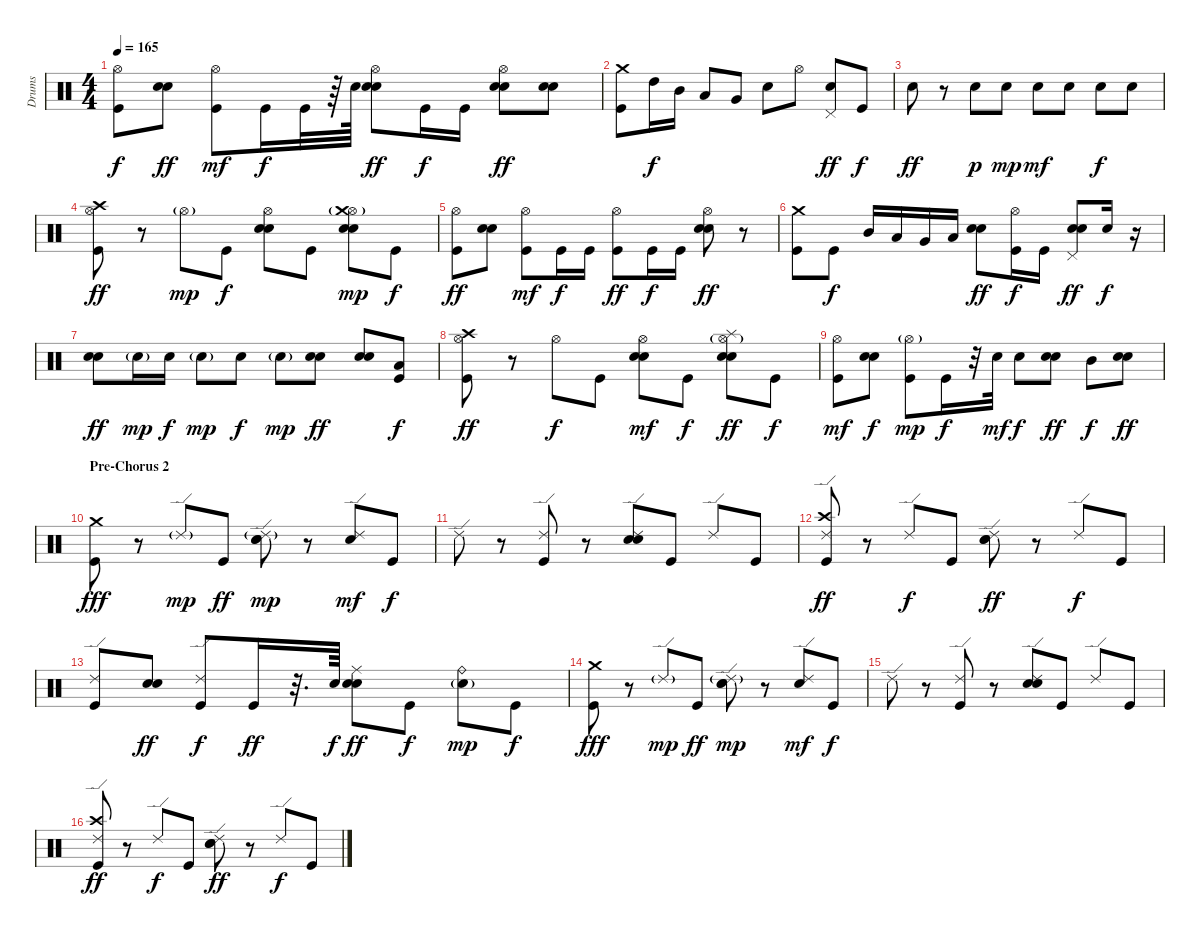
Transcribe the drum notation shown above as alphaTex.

\track ("Drums" "Drums") {instrument percussion}
\staff {score}
\articulation defaults
\ts (4 4)
\tempo 165
\clef neutral
\ks c
("Kick (hit)" "Hi-Hat (open)").8{dy f} ("Electric Snare (hit)" "Electric Snare (hit)").8{dy ff} ("Kick (hit)" "Hi-Hat (open)").8{dy mf} "Kick (hit)".16{dy f} "Kick (hit)".32 r.64 "Electric Snare (hit)".64 ("Electric Snare (hit)" "Electric Snare (hit)" "Hi-Hat (open)").8{dy ff} "Kick (hit)".16{dy f} "Kick (hit)".16 ("Electric Snare (hit)" "Electric Snare (hit)" "Hi-Hat (open)").8{dy ff} ("Electric Snare (hit)" "Electric Snare (hit)").8 |
("Kick (hit)" "Crash medium (hit)").8 "High Tom (hit)".16{dy f} "Mid Tom (hit)".16 "Low Tom (hit)".8 "Very Low Tom (hit)".8 "Electric Snare (hit)".8 "Hi-Hat (open)".8 ("Electric Snare (hit)" "Pedal Hi-Hat (hit)").8{dy ff} "Kick (hit)".8{dy f} |
"Electric Snare (hit)".8{dy ff} r.8 "Electric Snare (hit)".8{dy p} "Electric Snare (hit)".8{dy mp} "Electric Snare (hit)".8{dy mf} "Electric Snare (hit)".8 "Electric Snare (hit)".8{dy f} "Electric Snare (hit)".8 |
("Kick (hit)" "Hi-Hat (open)" "Crash high (hit)").8{dy ff} r.8 "Hi-Hat (open)"{g}.8{dy mp} "Kick (hit)".8{dy f} ("Electric Snare (hit)" "Electric Snare (hit)" "Hi-Hat (open)").8 "Kick (hit)".8 ("Electric Snare (hit)" "Electric Snare (hit)" "Hi-Hat (open)"{g} "Crash medium (hit)").8{dy mp} "Kick (hit)".8{dy f} |
("Kick (hit)" "Hi-Hat (open)").8{dy ff} ("Electric Snare (hit)" "Electric Snare (hit)").8 ("Kick (hit)" "Hi-Hat (open)").8{dy mf} "Kick (hit)".16{dy f} "Kick (hit)".16 ("Kick (hit)" "Hi-Hat (open)").8{dy ff} "Kick (hit)".16{dy f} "Kick (hit)".16 ("Electric Snare (hit)" "Electric Snare (hit)" "Hi-Hat (open)").8{dy ff} r.8 |
("Kick (hit)" "Crash medium (hit)").8 "Kick (hit)".8{dy f} "Mid Tom (hit)".16 "Low Tom (hit)".16 "Very Low Tom (hit)".16 "Low Floor Tom (hit)".16 ("Electric Snare (hit)" "Electric Snare (hit)").8{dy ff} ("Kick (hit)" "Hi-Hat (open)").16{dy f} "Kick (hit)".16 ("Electric Snare (hit)" "Pedal Hi-Hat (hit)" "Electric Snare (hit)").8{dy ff} "Electric Snare (hit)".16{dy f} r.16 |
("Electric Snare (hit)" "Electric Snare (hit)").8{dy ff} "Electric Snare (hit)"{g}.16{dy mp} "Electric Snare (hit)".16{dy f} "Electric Snare (hit)"{g}.8{dy mp} "Electric Snare (hit)".8{dy f} "Electric Snare (hit)"{g}.8{dy mp} ("Electric Snare (hit)" "Electric Snare (hit)").8{dy ff} ("Electric Snare (hit)" "Electric Snare (hit)").8 ("Kick (hit)" "Low Floor Tom (hit)").8{dy f} |
("Kick (hit)" "Hi-Hat (open)" "Crash high (hit)").8{dy ff} r.8 "Hi-Hat (open)".8{dy f} "Kick (hit)".8 ("Electric Snare (hit)" "Electric Snare (hit)" "Hi-Hat (open)").8{dy mf} "Kick (hit)".8{dy f} ("Electric Snare (hit)" "Electric Snare (hit)" "Hi-Hat (open)"{g} "Splash (hit)").8{dy ff} "Kick (hit)".8{dy f} |
("Kick (hit)" "Hi-Hat (open)").8{dy mf} ("Electric Snare (hit)" "Electric Snare (hit)").8{dy f} ("Kick (hit)" "Hi-Hat (open)"{g}).8{dy mp} "Kick (hit)".16{dy f} r.32 "Electric Snare (hit)".32{dy mf} "Electric Snare (hit)".8{dy f} ("Electric Snare (hit)" "Electric Snare (hit)").8{dy ff} "Mid Tom (hit)".8{dy f} ("Electric Snare (hit)" "Electric Snare (hit)").8{dy ff} |
\section ("" "Pre-Chorus 2")
("Kick (hit)" "Crash medium (hit)").8{dy fff} r.8 "Ride (edge) 2"{g}.8{dy mp} "Kick (hit)".8{dy ff} ("Electric Snare (hit)" "Electric Snare (hit)" "Ride (edge) 2"{g}).8{dy mp} r.8 ("Electric Snare (hit)" "Ride (edge) 2").8{dy mf} "Kick (hit)".8{dy f} |
"Ride (edge) 2".8 r.8 ("Kick (hit)" "Ride (edge) 2").8 r.8 ("Electric Snare (hit)" "Electric Snare (hit)" "Ride (edge) 2").8 "Kick (hit)".8 "Ride (edge) 2".8 "Kick (hit)".8 |
("Kick (hit)" "Ride (edge) 2" "Crash high (hit)").8{dy ff} r.8 "Ride (edge) 2".8{dy f} "Kick (hit)".8 ("Electric Snare (hit)" "Electric Snare (hit)" "Ride (edge) 2").8{dy ff} r.8 "Ride (edge) 2".8{dy f} "Kick (hit)".8 |
("Kick (hit)" "Ride (edge) 2").8 ("Electric Snare (hit)" "Electric Snare (hit)").8{dy ff} ("Kick (hit)" "Ride (edge) 2").8{dy f} "Kick (hit)".16{dy ff} r.32{d} "Electric Snare (hit)".64{dy f} ("Electric Snare (hit)" "Electric Snare (hit)" "Ride (middle)").8{dy ff} "Kick (hit)".8{dy f} ("Electric Snare (hit)"{g} "Ride (bell)").8{dy mp} "Kick (hit)".8{dy f} |
("Kick (hit)" "Crash medium (hit)").8{dy fff} r.8 "Ride (edge) 2"{g}.8{dy mp} "Kick (hit)".8{dy ff} ("Electric Snare (hit)" "Electric Snare (hit)" "Ride (edge) 2"{g}).8{dy mp} r.8 ("Electric Snare (hit)" "Ride (edge) 2").8{dy mf} "Kick (hit)".8{dy f} |
"Ride (edge) 2".8 r.8 ("Kick (hit)" "Ride (edge) 2").8 r.8 ("Electric Snare (hit)" "Electric Snare (hit)" "Ride (edge) 2").8 "Kick (hit)".8 "Ride (edge) 2".8 "Kick (hit)".8 |
("Kick (hit)" "Ride (edge) 2" "Crash high (hit)").8{dy ff} r.8 "Ride (edge) 2".8{dy f} "Kick (hit)".8 ("Electric Snare (hit)" "Electric Snare (hit)" "Ride (edge) 2").8{dy ff} r.8 "Ride (edge) 2".8{dy f} "Kick (hit)".8
